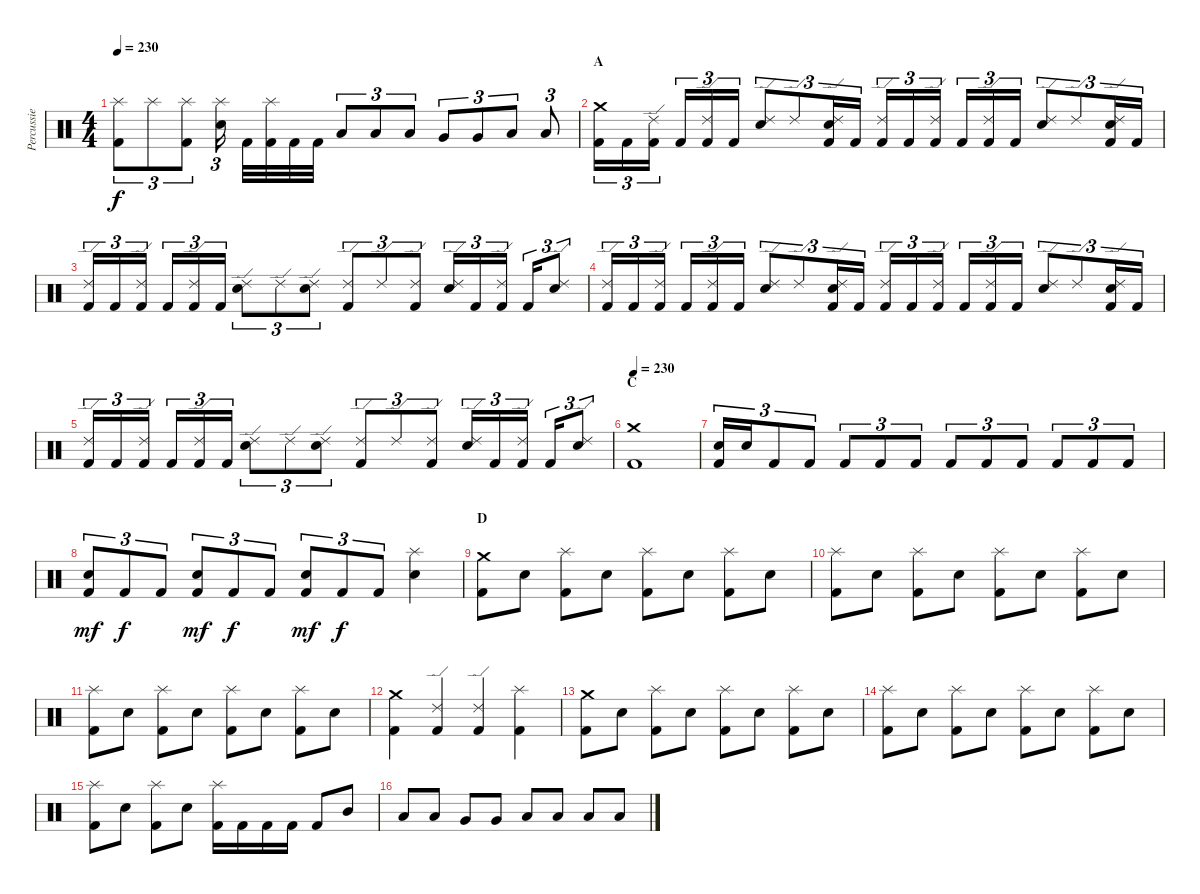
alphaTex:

\track ("Percussie" "Percussie") {instrument percussion}
\staff {score}
\articulation defaults
\ts (4 4)
\tempo 230
\clef neutral
\ks c
("Splash (hit)" "Kick (hit) 2").8{tu (3 2) dy f} "Splash (hit)".8{tu (3 2)} ("Splash (hit)" "Kick (hit) 2").8{tu (3 2)} ("Splash (hit)" "Electric Snare (hit)").16{tu (3 2)} "Kick (hit) 2".32 ("Splash (hit)" "Kick (hit) 2").32 "Kick (hit) 2".32 "Kick (hit) 2".32 "Low Tom (hit)".8{tu (3 2)} "Low Tom (hit)".8{tu (3 2)} "Low Tom (hit)".8{tu (3 2)} "Very Low Tom (hit)".8{tu (3 2)} "Very Low Tom (hit)".8{tu (3 2)} "Low Floor Tom (hit)".8{tu (3 2)} "Low Floor Tom (hit)".8{tu (3 2)} |
\section ("" "A")
("Crash medium (hit)" "Kick (hit) 2").16{tu (3 2)} "Kick (hit) 2".16{tu (3 2)} ("Ride (edge) 2" "Kick (hit) 2").16{tu (3 2)} "Kick (hit) 2".16{tu (3 2)} ("Ride (edge) 2" "Kick (hit) 2").16{tu (3 2)} "Kick (hit) 2".16{tu (3 2)} ("Ride (edge) 2" "Electric Snare (hit)").8{tu (3 2)} "Ride (edge) 2".8{tu (3 2)} ("Ride (edge) 2" "Electric Snare (hit)" "Kick (hit) 2").16{tu (3 2)} "Kick (hit) 2".16{tu (3 2)} ("Ride (edge) 2" "Kick (hit) 2").16{tu (3 2)} "Kick (hit) 2".16{tu (3 2)} ("Ride (edge) 2" "Kick (hit) 2").16{tu (3 2)} "Kick (hit) 2".16{tu (3 2)} ("Ride (edge) 2" "Kick (hit) 2").16{tu (3 2)} "Kick (hit) 2".16{tu (3 2)} ("Ride (edge) 2" "Electric Snare (hit)").8{tu (3 2)} "Ride (edge) 2".8{tu (3 2)} ("Ride (edge) 2" "Electric Snare (hit)" "Kick (hit) 2").16{tu (3 2)} "Kick (hit) 2".16{tu (3 2)} |
("Ride (edge) 2" "Kick (hit) 2").16{tu (3 2)} "Kick (hit) 2".16{tu (3 2)} ("Ride (edge) 2" "Kick (hit) 2").16{tu (3 2)} "Kick (hit) 2".16{tu (3 2)} ("Ride (edge) 2" "Kick (hit) 2").16{tu (3 2)} "Kick (hit) 2".16{tu (3 2)} ("Ride (edge) 2" "Electric Snare (hit)").8{tu (3 2)} "Ride (edge) 2".8{tu (3 2)} ("Ride (edge) 2" "Electric Snare (hit)").8{tu (3 2)} ("Ride (edge) 2" "Kick (hit) 2").8{tu (3 2)} "Ride (edge) 2".8{tu (3 2)} ("Ride (edge) 2" "Kick (hit) 2").8{tu (3 2)} ("Ride (edge) 2" "Electric Snare (hit)").16{tu (3 2)} "Kick (hit) 2".16{tu (3 2)} ("Ride (edge) 2" "Kick (hit) 2").16{tu (3 2)} "Kick (hit) 2".16{tu (3 2)} ("Ride (edge) 2" "Electric Snare (hit)").8{tu (3 2)} |
("Ride (edge) 2" "Kick (hit) 2").16{tu (3 2)} "Kick (hit) 2".16{tu (3 2)} ("Ride (edge) 2" "Kick (hit) 2").16{tu (3 2)} "Kick (hit) 2".16{tu (3 2)} ("Ride (edge) 2" "Kick (hit) 2").16{tu (3 2)} "Kick (hit) 2".16{tu (3 2)} ("Ride (edge) 2" "Electric Snare (hit)").8{tu (3 2)} "Ride (edge) 2".8{tu (3 2)} ("Ride (edge) 2" "Electric Snare (hit)" "Kick (hit) 2").16{tu (3 2)} "Kick (hit) 2".16{tu (3 2)} ("Ride (edge) 2" "Kick (hit) 2").16{tu (3 2)} "Kick (hit) 2".16{tu (3 2)} ("Ride (edge) 2" "Kick (hit) 2").16{tu (3 2)} "Kick (hit) 2".16{tu (3 2)} ("Ride (edge) 2" "Kick (hit) 2").16{tu (3 2)} "Kick (hit) 2".16{tu (3 2)} ("Ride (edge) 2" "Electric Snare (hit)").8{tu (3 2)} "Ride (edge) 2".8{tu (3 2)} ("Ride (edge) 2" "Electric Snare (hit)" "Kick (hit) 2").16{tu (3 2)} "Kick (hit) 2".16{tu (3 2)} |
("Ride (edge) 2" "Kick (hit) 2").16{tu (3 2)} "Kick (hit) 2".16{tu (3 2)} ("Ride (edge) 2" "Kick (hit) 2").16{tu (3 2)} "Kick (hit) 2".16{tu (3 2)} ("Ride (edge) 2" "Kick (hit) 2").16{tu (3 2)} "Kick (hit) 2".16{tu (3 2)} ("Ride (edge) 2" "Electric Snare (hit)").8{tu (3 2)} "Ride (edge) 2".8{tu (3 2)} ("Ride (edge) 2" "Electric Snare (hit)").8{tu (3 2)} ("Ride (edge) 2" "Kick (hit) 2").8{tu (3 2)} "Ride (edge) 2".8{tu (3 2)} ("Ride (edge) 2" "Kick (hit) 2").8{tu (3 2)} ("Ride (edge) 2" "Electric Snare (hit)").16{tu (3 2)} "Kick (hit) 2".16{tu (3 2)} ("Ride (edge) 2" "Kick (hit) 2").16{tu (3 2)} "Kick (hit) 2".16{tu (3 2)} ("Ride (edge) 2" "Electric Snare (hit)").8{tu (3 2)} |
\section ("" "C")
\tempo 230
("Crash medium (hit)" "Kick (hit) 2").1 |
("Electric Snare (hit)" "Kick (hit) 2").16{tu (3 2)} "Electric Snare (hit)".16{tu (3 2)} "Kick (hit) 2".8{tu (3 2)} "Kick (hit) 2".8{tu (3 2)} "Kick (hit) 2".8{tu (3 2)} "Kick (hit) 2".8{tu (3 2)} "Kick (hit) 2".8{tu (3 2)} "Kick (hit) 2".8{tu (3 2)} "Kick (hit) 2".8{tu (3 2)} "Kick (hit) 2".8{tu (3 2)} "Kick (hit) 2".8{tu (3 2)} "Kick (hit) 2".8{tu (3 2)} "Kick (hit) 2".8{tu (3 2)} |
("Electric Snare (hit)" "Kick (hit) 2").8{tu (3 2) dy mf} "Kick (hit) 2".8{tu (3 2) dy f} "Kick (hit) 2".8{tu (3 2)} ("Electric Snare (hit)" "Kick (hit) 2").8{tu (3 2) dy mf} "Kick (hit) 2".8{tu (3 2) dy f} "Kick (hit) 2".8{tu (3 2)} ("Electric Snare (hit)" "Kick (hit) 2").8{tu (3 2) dy mf} "Kick (hit) 2".8{tu (3 2) dy f} "Kick (hit) 2".8{tu (3 2)} ("Splash (hit)" "Electric Snare (hit)").4 |
\section ("" "D")
("Crash medium (hit)" "Kick (hit) 2").8 "Electric Snare (hit)".8 ("Splash (hit)" "Kick (hit) 2").8 "Electric Snare (hit)".8 ("Splash (hit)" "Kick (hit) 2").8 "Electric Snare (hit)".8 ("Splash (hit)" "Kick (hit) 2").8 "Electric Snare (hit)".8 |
("Splash (hit)" "Kick (hit) 2").8 "Electric Snare (hit)".8 ("Splash (hit)" "Kick (hit) 2").8 "Electric Snare (hit)".8 ("Splash (hit)" "Kick (hit) 2").8 "Electric Snare (hit)".8 ("Splash (hit)" "Kick (hit) 2").8 "Electric Snare (hit)".8 |
("Splash (hit)" "Kick (hit) 2").8 "Electric Snare (hit)".8 ("Splash (hit)" "Kick (hit) 2").8 "Electric Snare (hit)".8 ("Splash (hit)" "Kick (hit) 2").8 "Electric Snare (hit)".8 ("Splash (hit)" "Kick (hit) 2").8 "Electric Snare (hit)".8 |
("Crash medium (hit)" "Kick (hit) 2").4 ("Ride (edge) 2" "Kick (hit) 2").4 ("Ride (edge) 2" "Kick (hit) 2").4 ("Splash (hit)" "Kick (hit) 2").4 |
("Crash medium (hit)" "Kick (hit) 2").8 "Electric Snare (hit)".8 ("Splash (hit)" "Kick (hit) 2").8 "Electric Snare (hit)".8 ("Splash (hit)" "Kick (hit) 2").8 "Electric Snare (hit)".8 ("Splash (hit)" "Kick (hit) 2").8 "Electric Snare (hit)".8 |
("Splash (hit)" "Kick (hit) 2").8 "Electric Snare (hit)".8 ("Splash (hit)" "Kick (hit) 2").8 "Electric Snare (hit)".8 ("Splash (hit)" "Kick (hit) 2").8 "Electric Snare (hit)".8 ("Splash (hit)" "Kick (hit) 2").8 "Electric Snare (hit)".8 |
("Splash (hit)" "Kick (hit) 2").8 "Electric Snare (hit)".8 ("Splash (hit)" "Kick (hit) 2").8 "Electric Snare (hit)".8 ("Splash (hit)" "Kick (hit) 2").16 "Kick (hit) 2".16 "Kick (hit) 2".16 "Kick (hit) 2".16 "Kick (hit) 2".8 "Mid Tom (hit)".8 |
"Low Tom (hit)".8 "Low Tom (hit)".8 "Very Low Tom (hit)".8 "Very Low Tom (hit)".8 "Low Floor Tom (hit)".8 "Low Floor Tom (hit)".8 "Low Floor Tom (hit)".8 "Low Floor Tom (hit)".8
